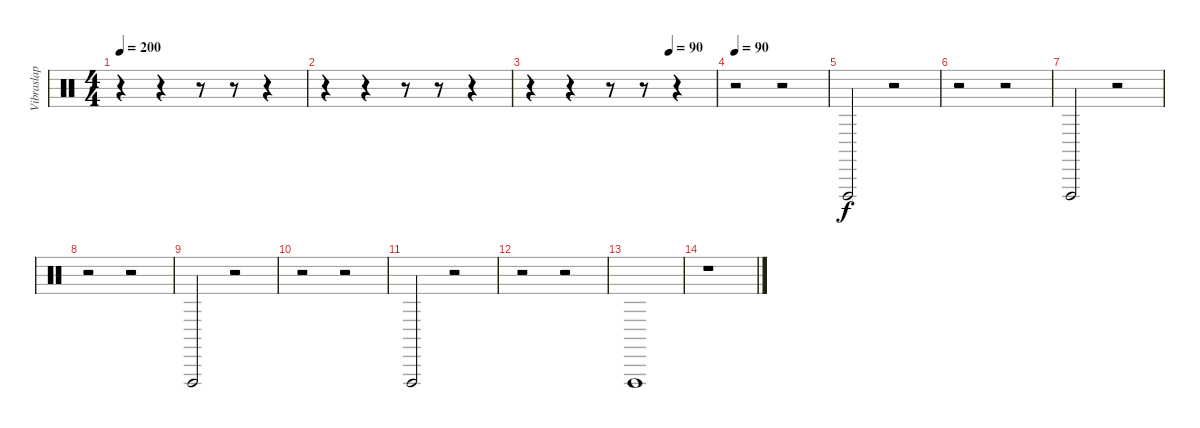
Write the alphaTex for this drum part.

\track ("Vibraslap" "Vibraslap") {instrument percussion}
\staff {score}
\articulation defaults
\ts (4 4)
\tempo 200
\clef neutral
\ks c
r.4{dy f} r.4 r.8 r.8 r.4 |
r.4 r.4 r.8 r.8 r.4 |
\tempo (90 0.75)
r.4 r.4 r.8 r.8 r.4 |
\tempo 90
r.2 r.2 |
"Vibraslap (hit)".2 r.2 |
r.2 r.2 |
"Vibraslap (hit)".2 r.2 |
r.2 r.2 |
"Vibraslap (hit)".2 r.2 |
r.2 r.2 |
"Vibraslap (hit)".2 r.2 |
r.2 r.2 |
"Vibraslap (hit)".1 |
r.1
